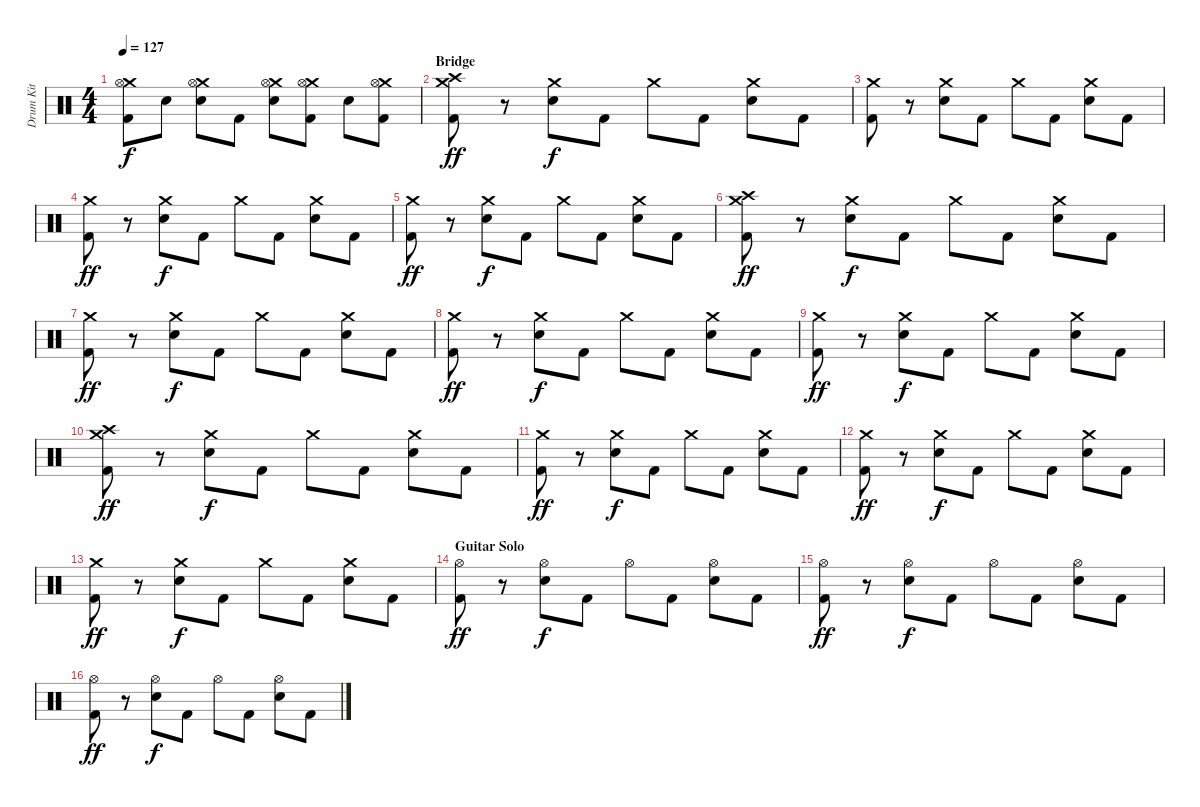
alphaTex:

\track ("Drum Kit" "Drum Kit") {instrument percussion}
\staff {score}
\articulation defaults
\ts (4 4)
\tempo 127
\clef neutral
\ks c
("Crash medium (hit)" "Hi-Hat (open)" "Kick (hit) 2").8{dy f} "Electric Snare (hit)".8 ("Crash medium (hit)" "Hi-Hat (open)" "Electric Snare (hit)").8 "Kick (hit) 2".8 ("Crash medium (hit)" "Hi-Hat (open)" "Electric Snare (hit)").8 ("Crash medium (hit)" "Hi-Hat (open)" "Kick (hit) 2").8 "Electric Snare (hit)".8 ("Crash medium (hit)" "Hi-Hat (open)" "Kick (hit) 2").8 |
\section ("" "Bridge")
("Crash high (hit)" "Crash medium (hit)" "Kick (hit) 2").8{dy ff} r.8 ("Crash medium (hit)" "Electric Snare (hit)").8{dy f} "Kick (hit) 2".8 "Crash medium (hit)".8 "Kick (hit) 2".8 ("Crash medium (hit)" "Electric Snare (hit)").8 "Kick (hit) 2".8 |
("Crash medium (hit)" "Kick (hit) 2").8 r.8 ("Crash medium (hit)" "Electric Snare (hit)").8 "Kick (hit) 2".8 "Crash medium (hit)".8 "Kick (hit) 2".8 ("Crash medium (hit)" "Electric Snare (hit)").8 "Kick (hit) 2".8 |
("Crash medium (hit)" "Kick (hit) 2").8{dy ff} r.8 ("Crash medium (hit)" "Electric Snare (hit)").8{dy f} "Kick (hit) 2".8 "Crash medium (hit)".8 "Kick (hit) 2".8 ("Crash medium (hit)" "Electric Snare (hit)").8 "Kick (hit) 2".8 |
("Crash medium (hit)" "Kick (hit) 2").8{dy ff} r.8 ("Crash medium (hit)" "Electric Snare (hit)").8{dy f} "Kick (hit) 2".8 "Crash medium (hit)".8 "Kick (hit) 2".8 ("Crash medium (hit)" "Electric Snare (hit)").8 "Kick (hit) 2".8 |
("Crash high (hit)" "Crash medium (hit)" "Kick (hit) 2").8{dy ff} r.8 ("Crash medium (hit)" "Electric Snare (hit)").8{dy f} "Kick (hit) 2".8 "Crash medium (hit)".8 "Kick (hit) 2".8 ("Crash medium (hit)" "Electric Snare (hit)").8 "Kick (hit) 2".8 |
("Crash medium (hit)" "Kick (hit) 2").8{dy ff} r.8 ("Crash medium (hit)" "Electric Snare (hit)").8{dy f} "Kick (hit) 2".8 "Crash medium (hit)".8 "Kick (hit) 2".8 ("Crash medium (hit)" "Electric Snare (hit)").8 "Kick (hit) 2".8 |
("Crash medium (hit)" "Kick (hit) 2").8{dy ff} r.8 ("Crash medium (hit)" "Electric Snare (hit)").8{dy f} "Kick (hit) 2".8 "Crash medium (hit)".8 "Kick (hit) 2".8 ("Crash medium (hit)" "Electric Snare (hit)").8 "Kick (hit) 2".8 |
("Crash medium (hit)" "Kick (hit) 2").8{dy ff} r.8 ("Crash medium (hit)" "Electric Snare (hit)").8{dy f} "Kick (hit) 2".8 "Crash medium (hit)".8 "Kick (hit) 2".8 ("Crash medium (hit)" "Electric Snare (hit)").8 "Kick (hit) 2".8 |
("Crash high (hit)" "Crash medium (hit)" "Kick (hit) 2").8{dy ff} r.8 ("Crash medium (hit)" "Electric Snare (hit)").8{dy f} "Kick (hit) 2".8 "Crash medium (hit)".8 "Kick (hit) 2".8 ("Crash medium (hit)" "Electric Snare (hit)").8 "Kick (hit) 2".8 |
("Crash medium (hit)" "Kick (hit) 2").8{dy ff} r.8 ("Crash medium (hit)" "Electric Snare (hit)").8{dy f} "Kick (hit) 2".8 "Crash medium (hit)".8 "Kick (hit) 2".8 ("Crash medium (hit)" "Electric Snare (hit)").8 "Kick (hit) 2".8 |
("Crash medium (hit)" "Kick (hit) 2").8{dy ff} r.8 ("Crash medium (hit)" "Electric Snare (hit)").8{dy f} "Kick (hit) 2".8 "Crash medium (hit)".8 "Kick (hit) 2".8 ("Crash medium (hit)" "Electric Snare (hit)").8 "Kick (hit) 2".8 |
("Crash medium (hit)" "Kick (hit) 2").8{dy ff} r.8 ("Crash medium (hit)" "Electric Snare (hit)").8{dy f} "Kick (hit) 2".8 "Crash medium (hit)".8 "Kick (hit) 2".8 ("Crash medium (hit)" "Electric Snare (hit)").8 "Kick (hit) 2".8 |
\section ("" "Guitar Solo")
("Hi-Hat (open)" "Kick (hit) 2").8{dy ff} r.8 ("Hi-Hat (open)" "Electric Snare (hit)").8{dy f} "Kick (hit) 2".8 "Hi-Hat (open)".8 "Kick (hit) 2".8 ("Hi-Hat (open)" "Electric Snare (hit)").8 "Kick (hit) 2".8 |
("Hi-Hat (open)" "Kick (hit) 2").8{dy ff} r.8 ("Hi-Hat (open)" "Electric Snare (hit)").8{dy f} "Kick (hit) 2".8 "Hi-Hat (open)".8 "Kick (hit) 2".8 ("Hi-Hat (open)" "Electric Snare (hit)").8 "Kick (hit) 2".8 |
("Hi-Hat (open)" "Kick (hit) 2").8{dy ff} r.8 ("Hi-Hat (open)" "Electric Snare (hit)").8{dy f} "Kick (hit) 2".8 "Hi-Hat (open)".8 "Kick (hit) 2".8 ("Hi-Hat (open)" "Electric Snare (hit)").8 "Kick (hit) 2".8
